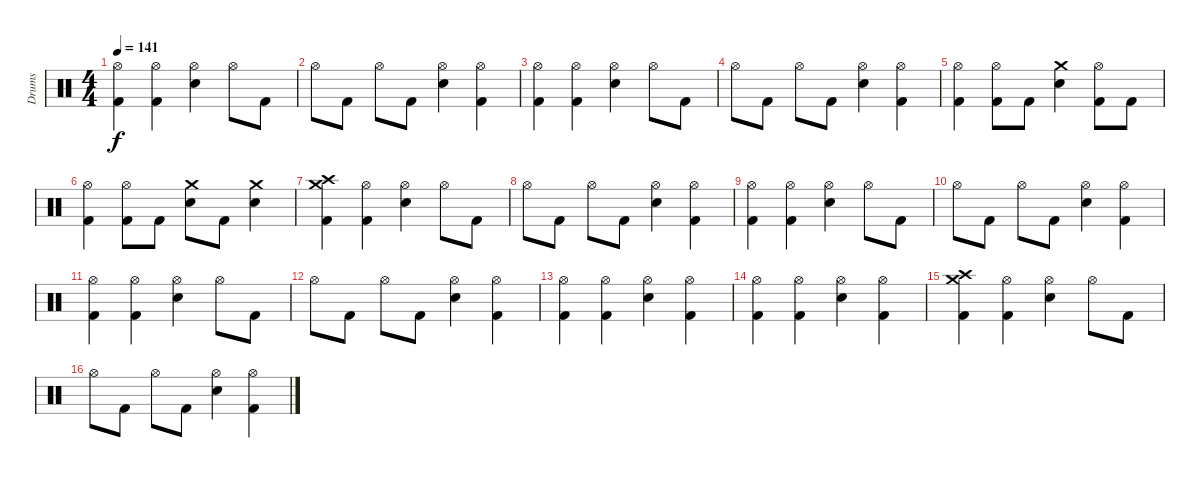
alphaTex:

\track ("Drums" "Drums") {instrument percussion}
\staff {score}
\articulation defaults
\ts (4 4)
\tempo 141
\clef neutral
\ks c
("Hi-Hat (open)" "Kick (hit) 2").4{dy f} ("Hi-Hat (open)" "Kick (hit) 2").4 ("Hi-Hat (open)" "Snare (hit) 2").4 "Hi-Hat (open)".8 "Kick (hit) 2".8 |
"Hi-Hat (open)".8 "Kick (hit) 2".8 "Hi-Hat (open)".8 "Kick (hit) 2".8 ("Hi-Hat (open)" "Snare (hit) 2").4 ("Hi-Hat (open)" "Kick (hit) 2").4 |
("Hi-Hat (open)" "Kick (hit) 2").4 ("Hi-Hat (open)" "Kick (hit) 2").4 ("Hi-Hat (open)" "Snare (hit) 2").4 "Hi-Hat (open)".8 "Kick (hit) 2".8 |
"Hi-Hat (open)".8 "Kick (hit) 2".8 "Hi-Hat (open)".8 "Kick (hit) 2".8 ("Hi-Hat (open)" "Snare (hit) 2").4 ("Hi-Hat (open)" "Kick (hit) 2").4 |
("Hi-Hat (open)" "Kick (hit) 2").4 ("Hi-Hat (open)" "Kick (hit) 2").8 "Kick (hit) 2".8 ("Crash medium (hit)" "Snare (hit) 2").4 ("Hi-Hat (open)" "Kick (hit) 2").8 "Kick (hit) 2".8 |
("Hi-Hat (open)" "Kick (hit) 2").4 ("Hi-Hat (open)" "Kick (hit) 2").8 "Kick (hit) 2".8 ("Crash medium (hit)" "Snare (hit) 2").8 "Kick (hit) 2".8 ("Crash medium (hit)" "Snare (hit) 2").4 |
("Crash high (hit)" "Crash medium (hit)" "Kick (hit) 2").4 ("Hi-Hat (open)" "Kick (hit) 2").4 ("Hi-Hat (open)" "Snare (hit) 2").4 "Hi-Hat (open)".8 "Kick (hit) 2".8 |
"Hi-Hat (open)".8 "Kick (hit) 2".8 "Hi-Hat (open)".8 "Kick (hit) 2".8 ("Hi-Hat (open)" "Snare (hit) 2").4 ("Hi-Hat (open)" "Kick (hit) 2").4 |
("Hi-Hat (open)" "Kick (hit) 2").4 ("Hi-Hat (open)" "Kick (hit) 2").4 ("Hi-Hat (open)" "Snare (hit) 2").4 "Hi-Hat (open)".8 "Kick (hit) 2".8 |
"Hi-Hat (open)".8 "Kick (hit) 2".8 "Hi-Hat (open)".8 "Kick (hit) 2".8 ("Hi-Hat (open)" "Snare (hit) 2").4 ("Hi-Hat (open)" "Kick (hit) 2").4 |
("Hi-Hat (open)" "Kick (hit) 2").4 ("Hi-Hat (open)" "Kick (hit) 2").4 ("Hi-Hat (open)" "Snare (hit) 2").4 "Hi-Hat (open)".8 "Kick (hit) 2".8 |
"Hi-Hat (open)".8 "Kick (hit) 2".8 "Hi-Hat (open)".8 "Kick (hit) 2".8 ("Hi-Hat (open)" "Snare (hit) 2").4 ("Hi-Hat (open)" "Kick (hit) 2").4 |
("Hi-Hat (open)" "Kick (hit) 2").4 ("Hi-Hat (open)" "Kick (hit) 2").4 ("Hi-Hat (open)" "Snare (hit) 2").4 ("Hi-Hat (open)" "Kick (hit) 2").4 |
("Hi-Hat (open)" "Kick (hit) 2").4 ("Hi-Hat (open)" "Kick (hit) 2").4 ("Hi-Hat (open)" "Snare (hit) 2").4 ("Hi-Hat (open)" "Kick (hit) 2").4 |
("Crash high (hit)" "Crash medium (hit)" "Kick (hit) 2").4 ("Hi-Hat (open)" "Kick (hit) 2").4 ("Hi-Hat (open)" "Snare (hit) 2").4 "Hi-Hat (open)".8 "Kick (hit) 2".8 |
"Hi-Hat (open)".8 "Kick (hit) 2".8 "Hi-Hat (open)".8 "Kick (hit) 2".8 ("Hi-Hat (open)" "Snare (hit) 2").4 ("Hi-Hat (open)" "Kick (hit) 2").4
